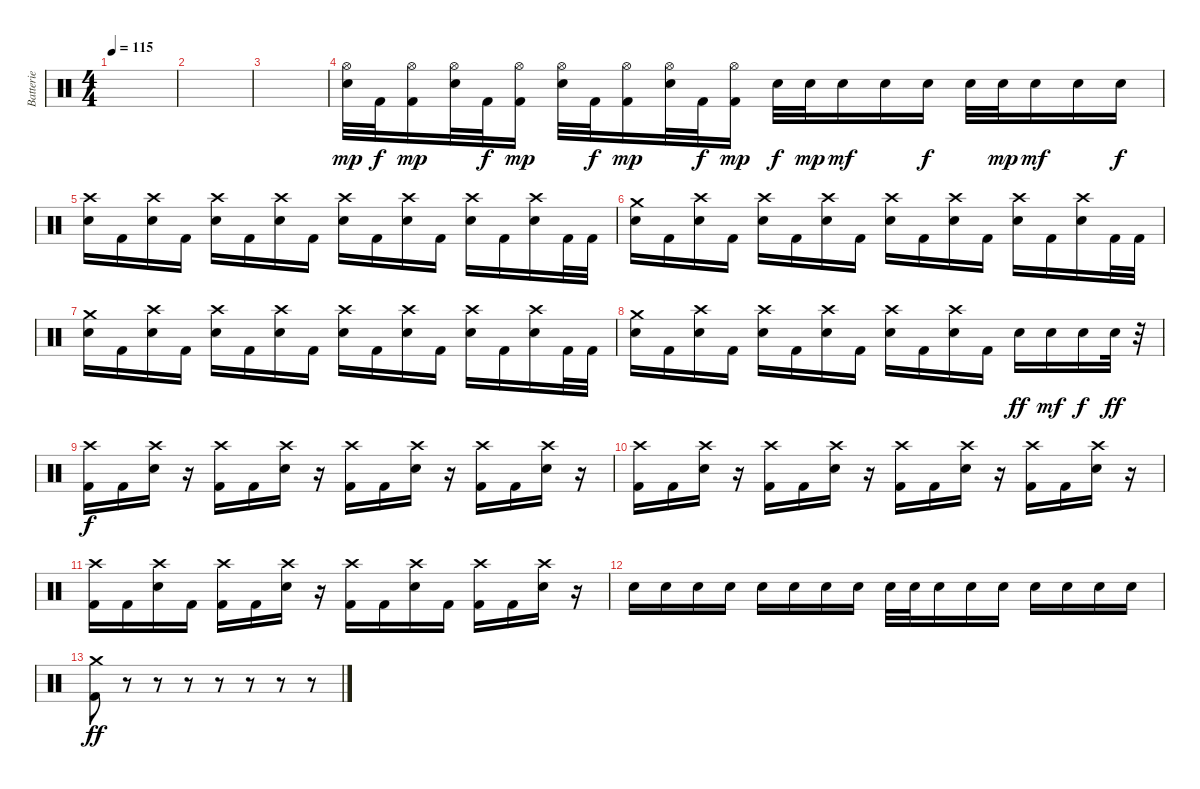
\track ("Batterie" "Batterie") {instrument percussion}
\staff {score}
\articulation defaults
\ts (4 4)
\tempo 115
\clef neutral
\ks c
|
|
|
("Electric Snare (hit)" "Hi-Hat (open)").32{dy mp} "Kick (hit) 2".32{dy f} ("Kick (hit) 2" "Hi-Hat (open)").16{dy mp} ("Electric Snare (hit)" "Hi-Hat (open)").32 "Kick (hit) 2".32{dy f} ("Kick (hit) 2" "Hi-Hat (open)").16{dy mp} ("Electric Snare (hit)" "Hi-Hat (open)").32 "Kick (hit) 2".32{dy f} ("Kick (hit) 2" "Hi-Hat (open)").16{dy mp} ("Electric Snare (hit)" "Hi-Hat (open)").32 "Kick (hit) 2".32{dy f} ("Kick (hit) 2" "Hi-Hat (open)").16{dy mp} "Electric Snare (hit)".32{dy f} "Electric Snare (hit)".32{dy mp} "Electric Snare (hit)".16{dy mf} "Electric Snare (hit)".16 "Electric Snare (hit)".16{dy f} "Electric Snare (hit)".32 "Electric Snare (hit)".32{dy mp} "Electric Snare (hit)".16{dy mf} "Electric Snare (hit)".16 "Electric Snare (hit)".16{dy f} |
("Electric Snare (hit)" "Crash high (hit)").16 "Kick (hit) 2".16 ("Electric Snare (hit)" "Crash high (hit)").16 "Kick (hit) 2".16 ("Electric Snare (hit)" "Crash high (hit)").16 "Kick (hit) 2".16 ("Electric Snare (hit)" "Crash high (hit)").16 "Kick (hit) 2".16 ("Electric Snare (hit)" "Crash high (hit)").16 "Kick (hit) 2".16 ("Electric Snare (hit)" "Crash high (hit)").16 "Kick (hit) 2".16 ("Electric Snare (hit)" "Crash high (hit)").16 "Kick (hit) 2".16 ("Electric Snare (hit)" "Crash high (hit)").16 "Kick (hit) 2".32 "Kick (hit) 2".32 |
("Electric Snare (hit)" "Crash medium (hit)").16 "Kick (hit) 2".16 ("Electric Snare (hit)" "Crash high (hit)").16 "Kick (hit) 2".16 ("Electric Snare (hit)" "Crash high (hit)").16 "Kick (hit) 2".16 ("Electric Snare (hit)" "Crash high (hit)").16 "Kick (hit) 2".16 ("Electric Snare (hit)" "Crash high (hit)").16 "Kick (hit) 2".16 ("Electric Snare (hit)" "Crash high (hit)").16 "Kick (hit) 2".16 ("Electric Snare (hit)" "Crash high (hit)").16 "Kick (hit) 2".16 ("Electric Snare (hit)" "Crash high (hit)").16 "Kick (hit) 2".32 "Kick (hit) 2".32 |
("Electric Snare (hit)" "Crash medium (hit)").16 "Kick (hit) 2".16 ("Electric Snare (hit)" "Crash high (hit)").16 "Kick (hit) 2".16 ("Electric Snare (hit)" "Crash high (hit)").16 "Kick (hit) 2".16 ("Electric Snare (hit)" "Crash high (hit)").16 "Kick (hit) 2".16 ("Electric Snare (hit)" "Crash high (hit)").16 "Kick (hit) 2".16 ("Electric Snare (hit)" "Crash high (hit)").16 "Kick (hit) 2".16 ("Electric Snare (hit)" "Crash high (hit)").16 "Kick (hit) 2".16 ("Electric Snare (hit)" "Crash high (hit)").16 "Kick (hit) 2".32 "Kick (hit) 2".32 |
("Electric Snare (hit)" "Crash medium (hit)").16 "Kick (hit) 2".16 ("Electric Snare (hit)" "Crash high (hit)").16 "Kick (hit) 2".16 ("Electric Snare (hit)" "Crash high (hit)").16 "Kick (hit) 2".16 ("Electric Snare (hit)" "Crash high (hit)").16 "Kick (hit) 2".16 ("Electric Snare (hit)" "Crash high (hit)").16 "Kick (hit) 2".16 ("Electric Snare (hit)" "Crash high (hit)").16 "Kick (hit) 2".16 "Electric Snare (hit)".16{dy ff} "Electric Snare (hit)".16{dy mf} "Electric Snare (hit)".16{dy f} "Electric Snare (hit)".32{dy ff} r.32 |
("Kick (hit) 2" "Crash high (hit)").16{dy f} "Kick (hit) 2".16 ("Electric Snare (hit)" "Crash high (hit)").16 r.16 ("Kick (hit) 2" "Crash high (hit)").16 "Kick (hit) 2".16 ("Electric Snare (hit)" "Crash high (hit)").16 r.16 ("Kick (hit) 2" "Crash high (hit)").16 "Kick (hit) 2".16 ("Electric Snare (hit)" "Crash high (hit)").16 r.16 ("Kick (hit) 2" "Crash high (hit)").16 "Kick (hit) 2".16 ("Electric Snare (hit)" "Crash high (hit)").16 r.16 |
("Kick (hit) 2" "Crash high (hit)").16 "Kick (hit) 2".16 ("Electric Snare (hit)" "Crash high (hit)").16 r.16 ("Kick (hit) 2" "Crash high (hit)").16 "Kick (hit) 2".16 ("Electric Snare (hit)" "Crash high (hit)").16 r.16 ("Kick (hit) 2" "Crash high (hit)").16 "Kick (hit) 2".16 ("Electric Snare (hit)" "Crash high (hit)").16 r.16 ("Kick (hit) 2" "Crash high (hit)").16 "Kick (hit) 2".16 ("Electric Snare (hit)" "Crash high (hit)").16 r.16 |
("Kick (hit) 2" "Crash high (hit)").16 "Kick (hit) 2".16 ("Electric Snare (hit)" "Crash high (hit)").16 "Kick (hit) 2".16 ("Kick (hit) 2" "Crash high (hit)").16 "Kick (hit) 2".16 ("Electric Snare (hit)" "Crash high (hit)").16 r.16 ("Kick (hit) 2" "Crash high (hit)").16 "Kick (hit) 2".16 ("Electric Snare (hit)" "Crash high (hit)").16 "Kick (hit) 2".16 ("Kick (hit) 2" "Crash high (hit)").16 "Kick (hit) 2".16 ("Electric Snare (hit)" "Crash high (hit)").16 r.16 |
"Electric Snare (hit)".16 "Electric Snare (hit)".16 "Electric Snare (hit)".16 "Electric Snare (hit)".16 "Electric Snare (hit)".16 "Electric Snare (hit)".16 "Electric Snare (hit)".16 "Electric Snare (hit)".16 "Electric Snare (hit)".32 "Electric Snare (hit)".32 "Electric Snare (hit)".16 "Electric Snare (hit)".16 "Electric Snare (hit)".16 "Electric Snare (hit)".16 "Electric Snare (hit)".16 "Electric Snare (hit)".16 "Electric Snare (hit)".16 |
("Kick (hit) 2" "Crash medium (hit)").8{dy ff} r.8 r.8 r.8 r.8 r.8 r.8 r.8
